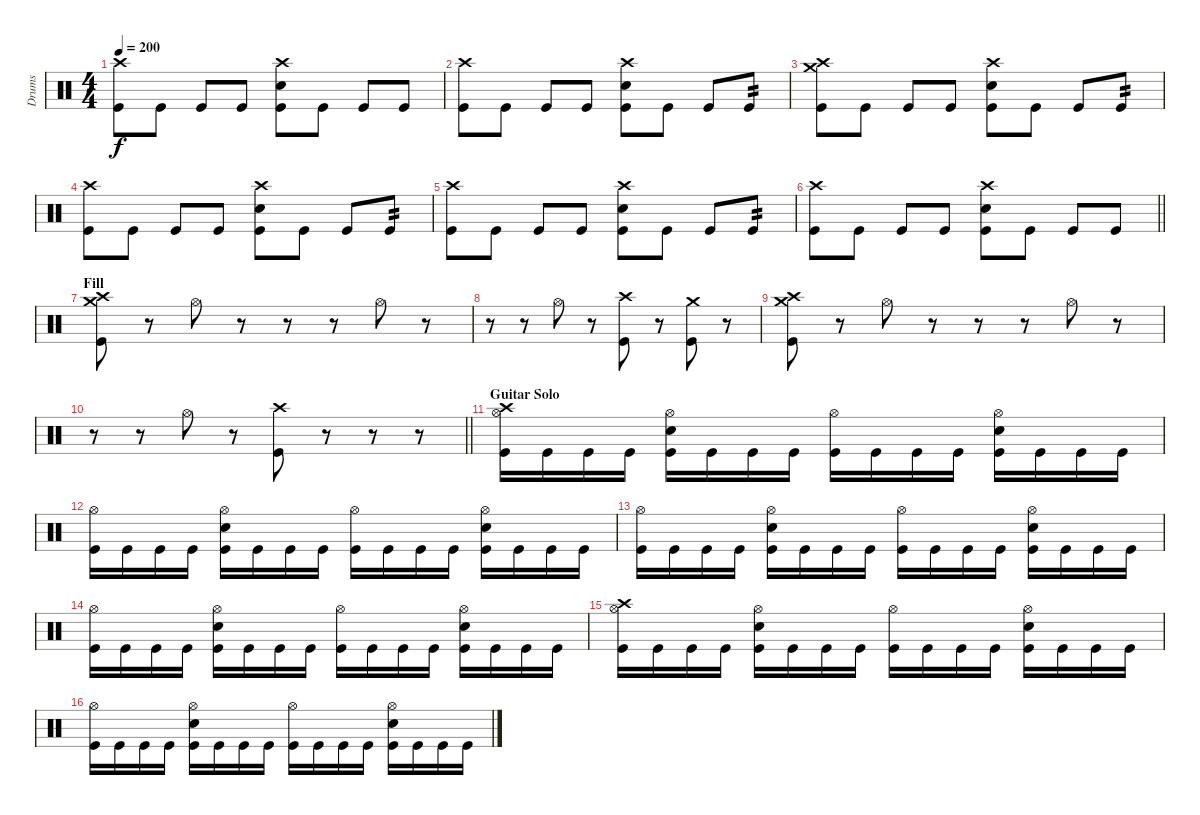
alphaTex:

\track ("Drums" "Drums") {instrument percussion}
\staff {score}
\articulation defaults
\ts (4 4)
\tempo 200
\clef neutral
\ks c
("Crash high (hit)" "Kick (hit)").8{dy f} "Kick (hit)".8 "Kick (hit)".8 "Kick (hit)".8 ("Crash high (hit)" "Electric Snare (hit)" "Kick (hit)").8 "Kick (hit)".8 "Kick (hit)".8 "Kick (hit)".8 |
("Crash high (hit)" "Kick (hit)").8 "Kick (hit)".8 "Kick (hit)".8 "Kick (hit)".8 ("Crash high (hit)" "Electric Snare (hit)" "Kick (hit)").8 "Kick (hit)".8 "Kick (hit)".8 "Kick (hit)".8{tp 2} |
("Crash high (hit)" "Crash medium (hit)" "Kick (hit)").8 "Kick (hit)".8 "Kick (hit)".8 "Kick (hit)".8 ("Crash high (hit)" "Electric Snare (hit)" "Kick (hit)").8 "Kick (hit)".8 "Kick (hit)".8 "Kick (hit)".8{tp 2} |
("Crash high (hit)" "Kick (hit)").8 "Kick (hit)".8 "Kick (hit)".8 "Kick (hit)".8 ("Crash high (hit)" "Electric Snare (hit)" "Kick (hit)").8 "Kick (hit)".8 "Kick (hit)".8 "Kick (hit)".8{tp 2} |
("Crash high (hit)" "Kick (hit)").8 "Kick (hit)".8 "Kick (hit)".8 "Kick (hit)".8 ("Crash high (hit)" "Electric Snare (hit)" "Kick (hit)").8 "Kick (hit)".8 "Kick (hit)".8 "Kick (hit)".8{tp 2} |
\barLineRight lightlight
("Crash high (hit)" "Kick (hit)").8 "Kick (hit)".8 "Kick (hit)".8 "Kick (hit)".8 ("Crash high (hit)" "Electric Snare (hit)" "Kick (hit)").8 "Kick (hit)".8 "Kick (hit)".8 "Kick (hit)".8 |
\section ("" "Fill")
("Crash high (hit)" "Crash medium (hit)" "Kick (hit)").8 r.8 "Hi-Hat (open)".8 r.8 r.8 r.8 "Hi-Hat (open)".8 r.8 |
r.8 r.8 "Hi-Hat (open)".8 r.8 ("Crash high (hit)" "Kick (hit)").8 r.8 ("Crash medium (hit)" "Kick (hit)").8 r.8 |
("Crash high (hit)" "Crash medium (hit)" "Kick (hit)").8 r.8 "Hi-Hat (open)".8 r.8 r.8 r.8 "Hi-Hat (open)".8 r.8 |
\barLineRight lightlight
r.8 r.8 "Hi-Hat (open)".8 r.8 ("Crash high (hit)" "Kick (hit)").8 r.8{volume 0} r.8 r.8 |
\section ("" "Guitar Solo")
("Hi-Hat (open)" "Crash high (hit)" "Kick (hit)").16{volume 13} "Kick (hit)".16 "Kick (hit)".16 "Kick (hit)".16 ("Hi-Hat (open)" "Electric Snare (hit)" "Kick (hit)").16 "Kick (hit)".16 "Kick (hit)".16 "Kick (hit)".16 ("Hi-Hat (open)" "Kick (hit)").16 "Kick (hit)".16 "Kick (hit)".16 "Kick (hit)".16 ("Hi-Hat (open)" "Electric Snare (hit)" "Kick (hit)").16 "Kick (hit)".16 "Kick (hit)".16 "Kick (hit)".16 |
("Hi-Hat (open)" "Kick (hit)").16 "Kick (hit)".16 "Kick (hit)".16 "Kick (hit)".16 ("Hi-Hat (open)" "Electric Snare (hit)" "Kick (hit)").16 "Kick (hit)".16 "Kick (hit)".16 "Kick (hit)".16 ("Hi-Hat (open)" "Kick (hit)").16 "Kick (hit)".16 "Kick (hit)".16 "Kick (hit)".16 ("Hi-Hat (open)" "Electric Snare (hit)" "Kick (hit)").16 "Kick (hit)".16 "Kick (hit)".16 "Kick (hit)".16 |
("Hi-Hat (open)" "Kick (hit)").16 "Kick (hit)".16 "Kick (hit)".16 "Kick (hit)".16 ("Hi-Hat (open)" "Electric Snare (hit)" "Kick (hit)").16 "Kick (hit)".16 "Kick (hit)".16 "Kick (hit)".16 ("Hi-Hat (open)" "Kick (hit)").16 "Kick (hit)".16 "Kick (hit)".16 "Kick (hit)".16 ("Hi-Hat (open)" "Electric Snare (hit)" "Kick (hit)").16 "Kick (hit)".16 "Kick (hit)".16 "Kick (hit)".16 |
("Hi-Hat (open)" "Kick (hit)").16 "Kick (hit)".16 "Kick (hit)".16 "Kick (hit)".16 ("Hi-Hat (open)" "Electric Snare (hit)" "Kick (hit)").16 "Kick (hit)".16 "Kick (hit)".16 "Kick (hit)".16 ("Hi-Hat (open)" "Kick (hit)").16 "Kick (hit)".16 "Kick (hit)".16 "Kick (hit)".16 ("Hi-Hat (open)" "Electric Snare (hit)" "Kick (hit)").16 "Kick (hit)".16 "Kick (hit)".16 "Kick (hit)".16 |
("Hi-Hat (open)" "Crash high (hit)" "Kick (hit)").16 "Kick (hit)".16 "Kick (hit)".16 "Kick (hit)".16 ("Hi-Hat (open)" "Electric Snare (hit)" "Kick (hit)").16 "Kick (hit)".16 "Kick (hit)".16 "Kick (hit)".16 ("Hi-Hat (open)" "Kick (hit)").16 "Kick (hit)".16 "Kick (hit)".16 "Kick (hit)".16 ("Hi-Hat (open)" "Electric Snare (hit)" "Kick (hit)").16 "Kick (hit)".16 "Kick (hit)".16 "Kick (hit)".16 |
("Hi-Hat (open)" "Kick (hit)").16 "Kick (hit)".16 "Kick (hit)".16 "Kick (hit)".16 ("Hi-Hat (open)" "Electric Snare (hit)" "Kick (hit)").16 "Kick (hit)".16 "Kick (hit)".16 "Kick (hit)".16 ("Hi-Hat (open)" "Kick (hit)").16 "Kick (hit)".16 "Kick (hit)".16 "Kick (hit)".16 ("Hi-Hat (open)" "Electric Snare (hit)" "Kick (hit)").16 "Kick (hit)".16 "Kick (hit)".16 "Kick (hit)".16
